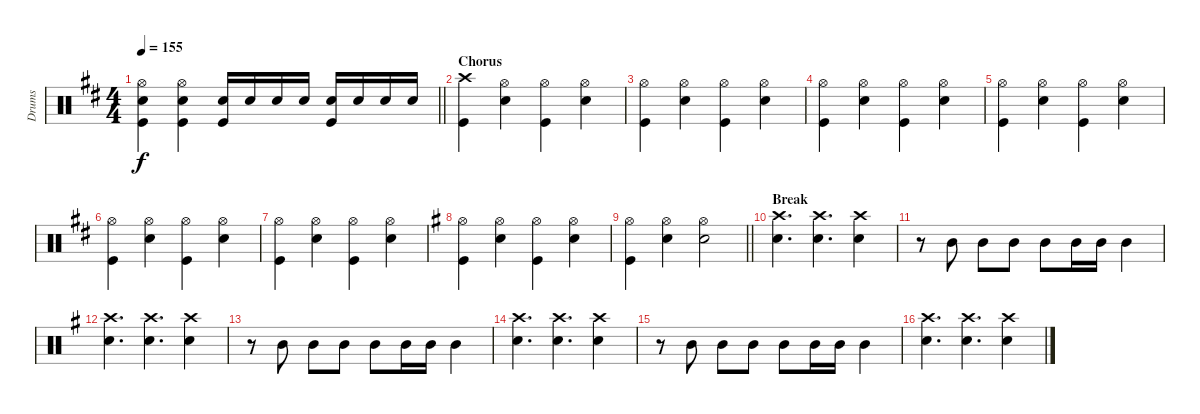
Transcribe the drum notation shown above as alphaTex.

\track ("Drums" "Drums") {instrument percussion}
\staff {score}
\articulation defaults
\ts (4 4)
\tempo 155
\clef neutral
\barLineRight lightlight
\ks d
("Hi-Hat (open)" "Snare (hit) 2" "Kick (hit)").4{dy f} ("Hi-Hat (open)" "Snare (hit) 2" "Kick (hit)").4 ("Snare (hit) 2" "Kick (hit)").16 "Snare (hit) 2".16 "Snare (hit) 2".16 "Snare (hit) 2".16 ("Snare (hit) 2" "Kick (hit)").16 "Snare (hit) 2".16 "Snare (hit) 2".16 "Snare (hit) 2".16 |
\section ("" "Chorus")
("Crash high (hit)" "Kick (hit)").4 ("Hi-Hat (open)" "Snare (hit) 2").4 ("Hi-Hat (open)" "Kick (hit)").4 ("Hi-Hat (open)" "Snare (hit) 2").4 |
("Hi-Hat (open)" "Kick (hit)").4 ("Hi-Hat (open)" "Snare (hit) 2").4 ("Hi-Hat (open)" "Kick (hit)").4 ("Hi-Hat (open)" "Snare (hit) 2").4 |
("Hi-Hat (open)" "Kick (hit)").4 ("Hi-Hat (open)" "Snare (hit) 2").4 ("Hi-Hat (open)" "Kick (hit)").4 ("Hi-Hat (open)" "Snare (hit) 2").4 |
("Hi-Hat (open)" "Kick (hit)").4 ("Hi-Hat (open)" "Snare (hit) 2").4 ("Hi-Hat (open)" "Kick (hit)").4 ("Hi-Hat (open)" "Snare (hit) 2").4 |
("Hi-Hat (open)" "Kick (hit)").4 ("Hi-Hat (open)" "Snare (hit) 2").4 ("Hi-Hat (open)" "Kick (hit)").4 ("Hi-Hat (open)" "Snare (hit) 2").4 |
("Hi-Hat (open)" "Kick (hit)").4 ("Hi-Hat (open)" "Snare (hit) 2").4 ("Hi-Hat (open)" "Kick (hit)").4 ("Hi-Hat (open)" "Snare (hit) 2").4 |
\ks g
("Hi-Hat (open)" "Kick (hit)").4 ("Hi-Hat (open)" "Snare (hit) 2").4 ("Hi-Hat (open)" "Kick (hit)").4 ("Hi-Hat (open)" "Snare (hit) 2").4 |
\barLineRight lightlight
("Hi-Hat (open)" "Kick (hit)").4 ("Hi-Hat (open)" "Snare (hit) 2").4 ("Hi-Hat (open)" "Snare (hit) 2").2 |
\section ("" "Break")
("Crash high (hit)" "Snare (hit) 2").4{d} ("Crash high (hit)" "Snare (hit) 2").4{d} ("Crash high (hit)" "Snare (hit) 2").4 |
r.8 "Mid Tom (hit)".8 "Mid Tom (hit)".8 "Mid Tom (hit)".8 "Mid Tom (hit)".8 "Mid Tom (hit)".16 "Mid Tom (hit)".16 "Mid Tom (hit)".4 |
("Crash high (hit)" "Snare (hit) 2").4{d} ("Crash high (hit)" "Snare (hit) 2").4{d} ("Crash high (hit)" "Snare (hit) 2").4 |
r.8 "Mid Tom (hit)".8 "Mid Tom (hit)".8 "Mid Tom (hit)".8 "Mid Tom (hit)".8 "Mid Tom (hit)".16 "Mid Tom (hit)".16 "Mid Tom (hit)".4 |
("Crash high (hit)" "Snare (hit) 2").4{d} ("Crash high (hit)" "Snare (hit) 2").4{d} ("Crash high (hit)" "Snare (hit) 2").4 |
r.8 "Mid Tom (hit)".8 "Mid Tom (hit)".8 "Mid Tom (hit)".8 "Mid Tom (hit)".8 "Mid Tom (hit)".16 "Mid Tom (hit)".16 "Mid Tom (hit)".4 |
("Crash high (hit)" "Snare (hit) 2").4{d} ("Crash high (hit)" "Snare (hit) 2").4{d} ("Crash high (hit)" "Snare (hit) 2").4
